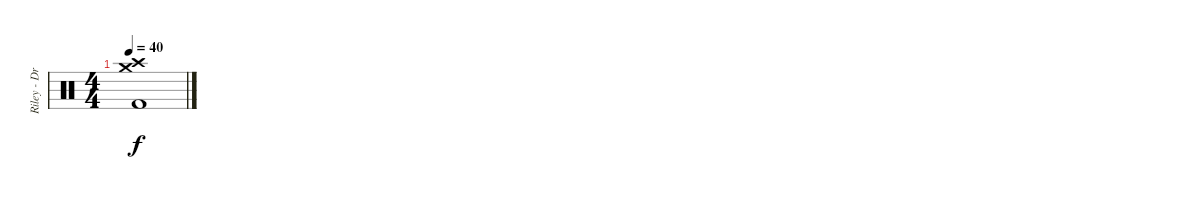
\track ("Riley - Drums" "Riley - Dr") {instrument percussion}
\staff {score}
\articulation defaults
\ts (4 4)
\tempo 40
\clef neutral
\ks c
("Crash medium (hit)" "Crash high (hit)" "Kick (hit) 2").1{dy f}
